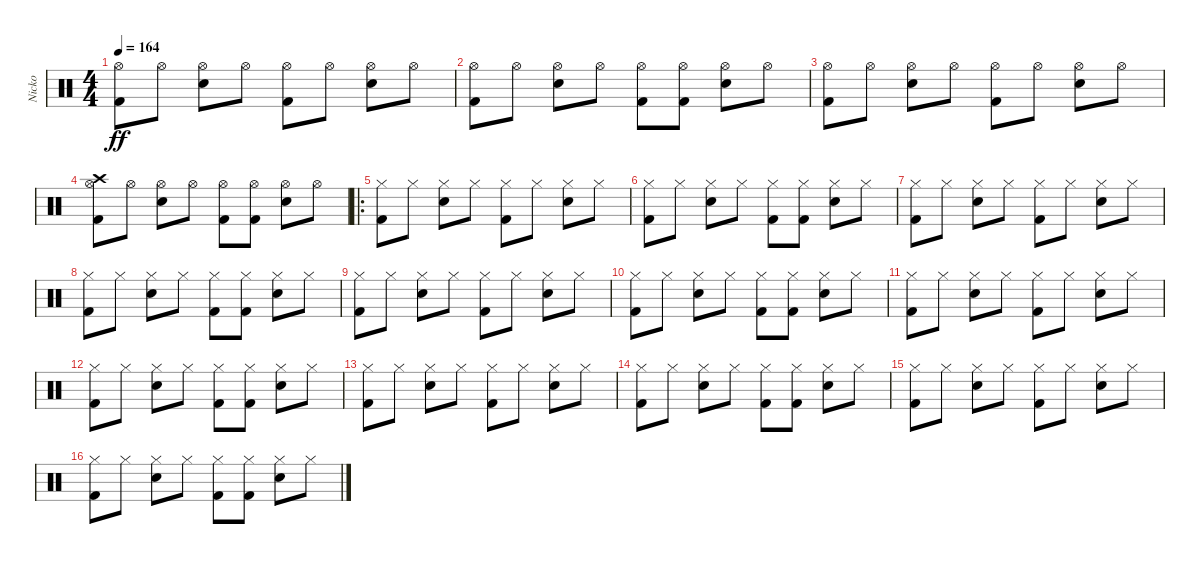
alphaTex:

\track ("Nicko" "Nicko") {instrument percussion}
\staff {score}
\articulation defaults
\ts (4 4)
\tempo 164
\clef neutral
\ks c
("Kick (hit) 2" "Hi-Hat (open)").8{dy ff} "Hi-Hat (open)".8 ("Snare (hit) 2" "Hi-Hat (open)").8 "Hi-Hat (open)".8 ("Kick (hit) 2" "Hi-Hat (open)").8 "Hi-Hat (open)".8 ("Snare (hit) 2" "Hi-Hat (open)").8 "Hi-Hat (open)".8 |
("Kick (hit) 2" "Hi-Hat (open)").8 "Hi-Hat (open)".8 ("Snare (hit) 2" "Hi-Hat (open)").8 "Hi-Hat (open)".8 ("Kick (hit) 2" "Hi-Hat (open)").8 ("Kick (hit) 2" "Hi-Hat (open)").8 ("Snare (hit) 2" "Hi-Hat (open)").8 "Hi-Hat (open)".8 |
("Kick (hit) 2" "Hi-Hat (open)").8 "Hi-Hat (open)".8 ("Snare (hit) 2" "Hi-Hat (open)").8 "Hi-Hat (open)".8 ("Kick (hit) 2" "Hi-Hat (open)").8 "Hi-Hat (open)".8 ("Snare (hit) 2" "Hi-Hat (open)").8 "Hi-Hat (open)".8 |
("Kick (hit) 2" "Hi-Hat (open)" "Crash high (hit)").8 "Hi-Hat (open)".8 ("Snare (hit) 2" "Hi-Hat (open)").8 "Hi-Hat (open)".8 ("Kick (hit) 2" "Hi-Hat (open)").8 ("Kick (hit) 2" "Hi-Hat (open)").8 ("Snare (hit) 2" "Hi-Hat (open)").8 "Hi-Hat (open)".8 |
\ro
("Kick (hit) 2" "Hi-Hat (closed)").8 "Hi-Hat (closed)".8 ("Snare (hit) 2" "Hi-Hat (closed)").8 "Hi-Hat (closed)".8 ("Kick (hit) 2" "Hi-Hat (closed)").8 "Hi-Hat (closed)".8 ("Snare (hit) 2" "Hi-Hat (closed)").8 "Hi-Hat (closed)".8 |
("Kick (hit) 2" "Hi-Hat (closed)").8 "Hi-Hat (closed)".8 ("Snare (hit) 2" "Hi-Hat (closed)").8 "Hi-Hat (closed)".8 ("Kick (hit) 2" "Hi-Hat (closed)").8 ("Kick (hit) 2" "Hi-Hat (closed)").8 ("Snare (hit) 2" "Hi-Hat (closed)").8 "Hi-Hat (closed)".8 |
("Kick (hit) 2" "Hi-Hat (closed)").8 "Hi-Hat (closed)".8 ("Snare (hit) 2" "Hi-Hat (closed)").8 "Hi-Hat (closed)".8 ("Kick (hit) 2" "Hi-Hat (closed)").8 "Hi-Hat (closed)".8 ("Snare (hit) 2" "Hi-Hat (closed)").8 "Hi-Hat (closed)".8 |
("Kick (hit) 2" "Hi-Hat (closed)").8 "Hi-Hat (closed)".8 ("Snare (hit) 2" "Hi-Hat (closed)").8 "Hi-Hat (closed)".8 ("Kick (hit) 2" "Hi-Hat (closed)").8 ("Kick (hit) 2" "Hi-Hat (closed)").8 ("Snare (hit) 2" "Hi-Hat (closed)").8 "Hi-Hat (closed)".8 |
("Kick (hit) 2" "Hi-Hat (closed)").8 "Hi-Hat (closed)".8 ("Snare (hit) 2" "Hi-Hat (closed)").8 "Hi-Hat (closed)".8 ("Kick (hit) 2" "Hi-Hat (closed)").8 "Hi-Hat (closed)".8 ("Snare (hit) 2" "Hi-Hat (closed)").8 "Hi-Hat (closed)".8 |
("Kick (hit) 2" "Hi-Hat (closed)").8 "Hi-Hat (closed)".8 ("Snare (hit) 2" "Hi-Hat (closed)").8 "Hi-Hat (closed)".8 ("Kick (hit) 2" "Hi-Hat (closed)").8 ("Kick (hit) 2" "Hi-Hat (closed)").8 ("Snare (hit) 2" "Hi-Hat (closed)").8 "Hi-Hat (closed)".8 |
("Kick (hit) 2" "Hi-Hat (closed)").8 "Hi-Hat (closed)".8 ("Snare (hit) 2" "Hi-Hat (closed)").8 "Hi-Hat (closed)".8 ("Kick (hit) 2" "Hi-Hat (closed)").8 "Hi-Hat (closed)".8 ("Snare (hit) 2" "Hi-Hat (closed)").8 "Hi-Hat (closed)".8 |
("Kick (hit) 2" "Hi-Hat (closed)").8 "Hi-Hat (closed)".8 ("Snare (hit) 2" "Hi-Hat (closed)").8 "Hi-Hat (closed)".8 ("Kick (hit) 2" "Hi-Hat (closed)").8 ("Kick (hit) 2" "Hi-Hat (closed)").8 ("Snare (hit) 2" "Hi-Hat (closed)").8 "Hi-Hat (closed)".8 |
("Kick (hit) 2" "Hi-Hat (closed)").8 "Hi-Hat (closed)".8 ("Snare (hit) 2" "Hi-Hat (closed)").8 "Hi-Hat (closed)".8 ("Kick (hit) 2" "Hi-Hat (closed)").8 "Hi-Hat (closed)".8 ("Snare (hit) 2" "Hi-Hat (closed)").8 "Hi-Hat (closed)".8 |
("Kick (hit) 2" "Hi-Hat (closed)").8 "Hi-Hat (closed)".8 ("Snare (hit) 2" "Hi-Hat (closed)").8 "Hi-Hat (closed)".8 ("Kick (hit) 2" "Hi-Hat (closed)").8 ("Kick (hit) 2" "Hi-Hat (closed)").8 ("Snare (hit) 2" "Hi-Hat (closed)").8 "Hi-Hat (closed)".8 |
("Kick (hit) 2" "Hi-Hat (closed)").8 "Hi-Hat (closed)".8 ("Snare (hit) 2" "Hi-Hat (closed)").8 "Hi-Hat (closed)".8 ("Kick (hit) 2" "Hi-Hat (closed)").8 "Hi-Hat (closed)".8 ("Snare (hit) 2" "Hi-Hat (closed)").8 "Hi-Hat (closed)".8 |
("Kick (hit) 2" "Hi-Hat (closed)").8 "Hi-Hat (closed)".8 ("Snare (hit) 2" "Hi-Hat (closed)").8 "Hi-Hat (closed)".8 ("Kick (hit) 2" "Hi-Hat (closed)").8 ("Kick (hit) 2" "Hi-Hat (closed)").8 ("Snare (hit) 2" "Hi-Hat (closed)").8 "Hi-Hat (closed)".8
